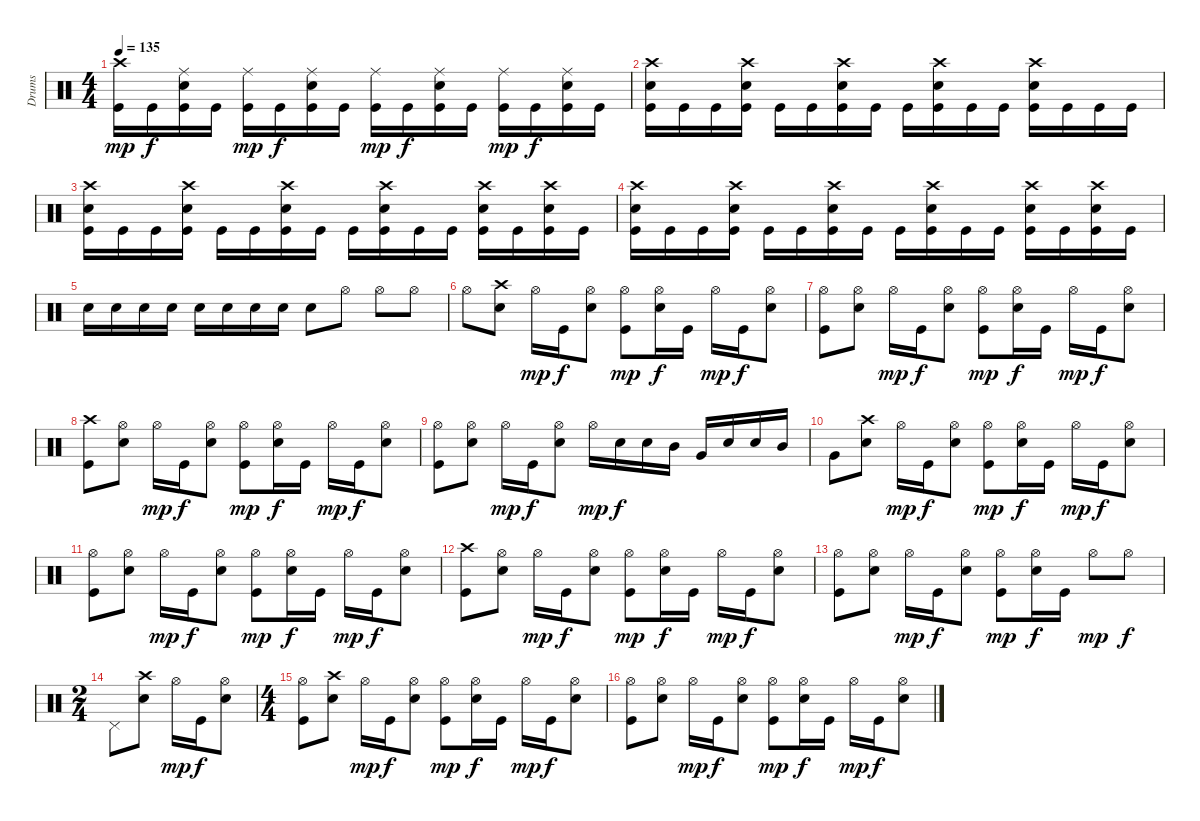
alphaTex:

\track ("Drums" "Drums") {instrument percussion}
\staff {score}
\articulation defaults
\ts (4 4)
\tempo 135
\clef neutral
\ks c
("Crash high (hit)" "Kick (hit)").16{dy mp} "Kick (hit)".16{dy f} ("Ride (middle)" "Snare (hit) 2" "Kick (hit)").16 "Kick (hit)".16 ("Ride (middle)" "Kick (hit)").16{dy mp} "Kick (hit)".16{dy f} ("Ride (middle)" "Snare (hit) 2" "Kick (hit)").16 "Kick (hit)".16 ("Ride (middle)" "Kick (hit)").16{dy mp} "Kick (hit)".16{dy f} ("Ride (middle)" "Snare (hit) 2" "Kick (hit)").16 "Kick (hit)".16 ("Ride (middle)" "Kick (hit)").16{dy mp} "Kick (hit)".16{dy f} ("Ride (middle)" "Snare (hit) 2" "Kick (hit)").16 "Kick (hit)".16 |
("Crash high (hit)" "Snare (hit) 2" "Kick (hit)").16 "Kick (hit)".16 "Kick (hit)".16 ("Crash high (hit)" "Snare (hit) 2" "Kick (hit)").16 "Kick (hit)".16 "Kick (hit)".16 ("Crash high (hit)" "Snare (hit) 2" "Kick (hit)").16 "Kick (hit)".16 "Kick (hit)".16 ("Crash high (hit)" "Snare (hit) 2" "Kick (hit)").16 "Kick (hit)".16 "Kick (hit)".16 ("Crash high (hit)" "Snare (hit) 2" "Kick (hit)").16 "Kick (hit)".16 "Kick (hit)".16 "Kick (hit)".16 |
("Crash high (hit)" "Snare (hit) 2" "Kick (hit)").16 "Kick (hit)".16 "Kick (hit)".16 ("Crash high (hit)" "Snare (hit) 2" "Kick (hit)").16 "Kick (hit)".16 "Kick (hit)".16 ("Crash high (hit)" "Snare (hit) 2" "Kick (hit)").16 "Kick (hit)".16 "Kick (hit)".16 ("Crash high (hit)" "Snare (hit) 2" "Kick (hit)").16 "Kick (hit)".16 "Kick (hit)".16 ("Crash high (hit)" "Snare (hit) 2" "Kick (hit)").16 "Kick (hit)".16 ("Crash high (hit)" "Snare (hit) 2" "Kick (hit)").16 "Kick (hit)".16 |
("Crash high (hit)" "Snare (hit) 2" "Kick (hit)").16 "Kick (hit)".16 "Kick (hit)".16 ("Crash high (hit)" "Snare (hit) 2" "Kick (hit)").16 "Kick (hit)".16 "Kick (hit)".16 ("Crash high (hit)" "Snare (hit) 2" "Kick (hit)").16 "Kick (hit)".16 "Kick (hit)".16 ("Crash high (hit)" "Snare (hit) 2" "Kick (hit)").16 "Kick (hit)".16 "Kick (hit)".16 ("Crash high (hit)" "Snare (hit) 2" "Kick (hit)").16 "Kick (hit)".16 ("Crash high (hit)" "Snare (hit) 2" "Kick (hit)").16 "Kick (hit)".16 |
"Snare (hit) 2".16 "Snare (hit) 2".16 "Snare (hit) 2".16 "Snare (hit) 2".16 "Snare (hit) 2".16 "Snare (hit) 2".16 "Snare (hit) 2".16 "Snare (hit) 2".16 "Snare (hit) 2".8 "Hi-Hat (open)".8 "Hi-Hat (open)".8 "Hi-Hat (open)".8 |
"Hi-Hat (open)".8 ("Crash high (hit)" "Snare (hit) 2").8 "Hi-Hat (open)".16{dy mp} "Kick (hit)".16{dy f} ("Hi-Hat (open)" "Snare (hit) 2").8 ("Hi-Hat (open)" "Kick (hit)").8{dy mp} ("Hi-Hat (open)" "Snare (hit) 2").16{dy f} "Kick (hit)".16 "Hi-Hat (open)".16{dy mp} "Kick (hit)".16{dy f} ("Hi-Hat (open)" "Snare (hit) 2").8 |
("Hi-Hat (open)" "Kick (hit)").8 ("Hi-Hat (open)" "Snare (hit) 2").8 "Hi-Hat (open)".16{dy mp} "Kick (hit)".16{dy f} ("Hi-Hat (open)" "Snare (hit) 2").8 ("Hi-Hat (open)" "Kick (hit)").8{dy mp} ("Hi-Hat (open)" "Snare (hit) 2").16{dy f} "Kick (hit)".16 "Hi-Hat (open)".16{dy mp} "Kick (hit)".16{dy f} ("Hi-Hat (open)" "Snare (hit) 2").8 |
("Crash high (hit)" "Kick (hit)").8 ("Hi-Hat (open)" "Snare (hit) 2").8 "Hi-Hat (open)".16{dy mp} "Kick (hit)".16{dy f} ("Hi-Hat (open)" "Snare (hit) 2").8 ("Hi-Hat (open)" "Kick (hit)").8{dy mp} ("Hi-Hat (open)" "Snare (hit) 2").16{dy f} "Kick (hit)".16 "Hi-Hat (open)".16{dy mp} "Kick (hit)".16{dy f} ("Hi-Hat (open)" "Snare (hit) 2").8 |
("Hi-Hat (open)" "Kick (hit)").8 ("Hi-Hat (open)" "Snare (hit) 2").8 "Hi-Hat (open)".16{dy mp} "Kick (hit)".16{dy f} ("Hi-Hat (open)" "Snare (hit) 2").8 "Hi-Hat (open)".16{dy mp} "Snare (hit) 2".16{dy f} "Snare (hit) 2".16 "Mid Tom (hit)".16 "Very Low Tom (hit)".16 "Snare (hit) 2".16 "Snare (hit) 2".16 "Mid Tom (hit)".16 |
"Very Low Tom (hit)".8 ("Crash high (hit)" "Snare (hit) 2").8 "Hi-Hat (open)".16{dy mp} "Kick (hit)".16{dy f} ("Hi-Hat (open)" "Snare (hit) 2").8 ("Hi-Hat (open)" "Kick (hit)").8{dy mp} ("Hi-Hat (open)" "Snare (hit) 2").16{dy f} "Kick (hit)".16 "Hi-Hat (open)".16{dy mp} "Kick (hit)".16{dy f} ("Hi-Hat (open)" "Snare (hit) 2").8 |
("Hi-Hat (open)" "Kick (hit)").8 ("Hi-Hat (open)" "Snare (hit) 2").8 "Hi-Hat (open)".16{dy mp} "Kick (hit)".16{dy f} ("Hi-Hat (open)" "Snare (hit) 2").8 ("Hi-Hat (open)" "Kick (hit)").8{dy mp} ("Hi-Hat (open)" "Snare (hit) 2").16{dy f} "Kick (hit)".16 "Hi-Hat (open)".16{dy mp} "Kick (hit)".16{dy f} ("Hi-Hat (open)" "Snare (hit) 2").8 |
("Crash high (hit)" "Kick (hit)").8 ("Hi-Hat (open)" "Snare (hit) 2").8 "Hi-Hat (open)".16{dy mp} "Kick (hit)".16{dy f} ("Hi-Hat (open)" "Snare (hit) 2").8 ("Hi-Hat (open)" "Kick (hit)").8{dy mp} ("Hi-Hat (open)" "Snare (hit) 2").16{dy f} "Kick (hit)".16 "Hi-Hat (open)".16{dy mp} "Kick (hit)".16{dy f} ("Hi-Hat (open)" "Snare (hit) 2").8 |
("Hi-Hat (open)" "Kick (hit)").8 ("Hi-Hat (open)" "Snare (hit) 2").8 "Hi-Hat (open)".16{dy mp} "Kick (hit)".16{dy f} ("Hi-Hat (open)" "Snare (hit) 2").8 ("Hi-Hat (open)" "Kick (hit)").8{dy mp} ("Hi-Hat (open)" "Snare (hit) 2").16{dy f} "Kick (hit)".16 "Hi-Hat (open)".8{dy mp} "Hi-Hat (open)".8{dy f} |
\ts (2 4)
"Pedal Hi-Hat (hit)".8 ("Crash high (hit)" "Snare (hit) 2").8 "Hi-Hat (open)".16{dy mp} "Kick (hit)".16{dy f} ("Hi-Hat (open)" "Snare (hit) 2").8 |
\ts (4 4)
("Hi-Hat (open)" "Kick (hit)").8 ("Crash high (hit)" "Snare (hit) 2").8 "Hi-Hat (open)".16{dy mp} "Kick (hit)".16{dy f} ("Hi-Hat (open)" "Snare (hit) 2").8 ("Hi-Hat (open)" "Kick (hit)").8{dy mp} ("Hi-Hat (open)" "Snare (hit) 2").16{dy f} "Kick (hit)".16 "Hi-Hat (open)".16{dy mp} "Kick (hit)".16{dy f} ("Hi-Hat (open)" "Snare (hit) 2").8 |
("Hi-Hat (open)" "Kick (hit)").8 ("Hi-Hat (open)" "Snare (hit) 2").8 "Hi-Hat (open)".16{dy mp} "Kick (hit)".16{dy f} ("Hi-Hat (open)" "Snare (hit) 2").8 ("Hi-Hat (open)" "Kick (hit)").8{dy mp} ("Hi-Hat (open)" "Snare (hit) 2").16{dy f} "Kick (hit)".16 "Hi-Hat (open)".16{dy mp} "Kick (hit)".16{dy f} ("Hi-Hat (open)" "Snare (hit) 2").8
